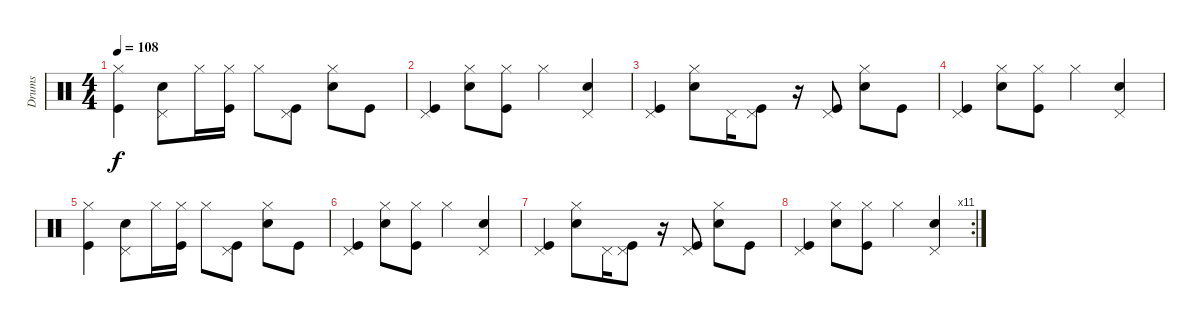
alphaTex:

\track ("Drums" "Drums") {instrument percussion}
\staff {score}
\articulation defaults
\ts (4 4)
\tempo 108
\clef neutral
\ks c
("Hi-Hat (closed)" "Kick (hit)").4{dy f} ("Pedal Hi-Hat (hit)" "Snare (hit) 2").8 "Hi-Hat (closed)".16 ("Hi-Hat (closed)" "Kick (hit)").16 "Hi-Hat (closed)".8 ("Pedal Hi-Hat (hit)" "Kick (hit)").8 ("Hi-Hat (closed)" "Snare (hit) 2").8 "Kick (hit)".8 |
("Pedal Hi-Hat (hit)" "Kick (hit)").4 ("Hi-Hat (closed)" "Snare (hit) 2").8 ("Hi-Hat (closed)" "Kick (hit)").8 "Hi-Hat (closed)".4 ("Pedal Hi-Hat (hit)" "Snare (hit) 2").4 |
("Pedal Hi-Hat (hit)" "Kick (hit)").4 ("Hi-Hat (closed)" "Snare (hit) 2").8 "Pedal Hi-Hat (hit)".16 ("Pedal Hi-Hat (hit)" "Kick (hit)").8 r.16 ("Pedal Hi-Hat (hit)" "Kick (hit)").8 ("Hi-Hat (closed)" "Snare (hit) 2").8 "Kick (hit)".8 |
("Pedal Hi-Hat (hit)" "Kick (hit)").4 ("Hi-Hat (closed)" "Snare (hit) 2").8 ("Hi-Hat (closed)" "Kick (hit)").8 "Hi-Hat (closed)".4 ("Pedal Hi-Hat (hit)" "Snare (hit) 2").4 |
("Hi-Hat (closed)" "Kick (hit)").4 ("Pedal Hi-Hat (hit)" "Snare (hit) 2").8 "Hi-Hat (closed)".16 ("Hi-Hat (closed)" "Kick (hit)").16 "Hi-Hat (closed)".8 ("Pedal Hi-Hat (hit)" "Kick (hit)").8 ("Hi-Hat (closed)" "Snare (hit) 2").8 "Kick (hit)".8 |
("Pedal Hi-Hat (hit)" "Kick (hit)").4 ("Hi-Hat (closed)" "Snare (hit) 2").8 ("Hi-Hat (closed)" "Kick (hit)").8 "Hi-Hat (closed)".4 ("Pedal Hi-Hat (hit)" "Snare (hit) 2").4 |
("Pedal Hi-Hat (hit)" "Kick (hit)").4 ("Hi-Hat (closed)" "Snare (hit) 2").8 "Pedal Hi-Hat (hit)".16 ("Pedal Hi-Hat (hit)" "Kick (hit)").8 r.16 ("Pedal Hi-Hat (hit)" "Kick (hit)").8 ("Hi-Hat (closed)" "Snare (hit) 2").8 "Kick (hit)".8 |
\rc 11
("Pedal Hi-Hat (hit)" "Kick (hit)").4 ("Hi-Hat (closed)" "Snare (hit) 2").8 ("Hi-Hat (closed)" "Kick (hit)").8 "Hi-Hat (closed)".4 ("Pedal Hi-Hat (hit)" "Snare (hit) 2").4
